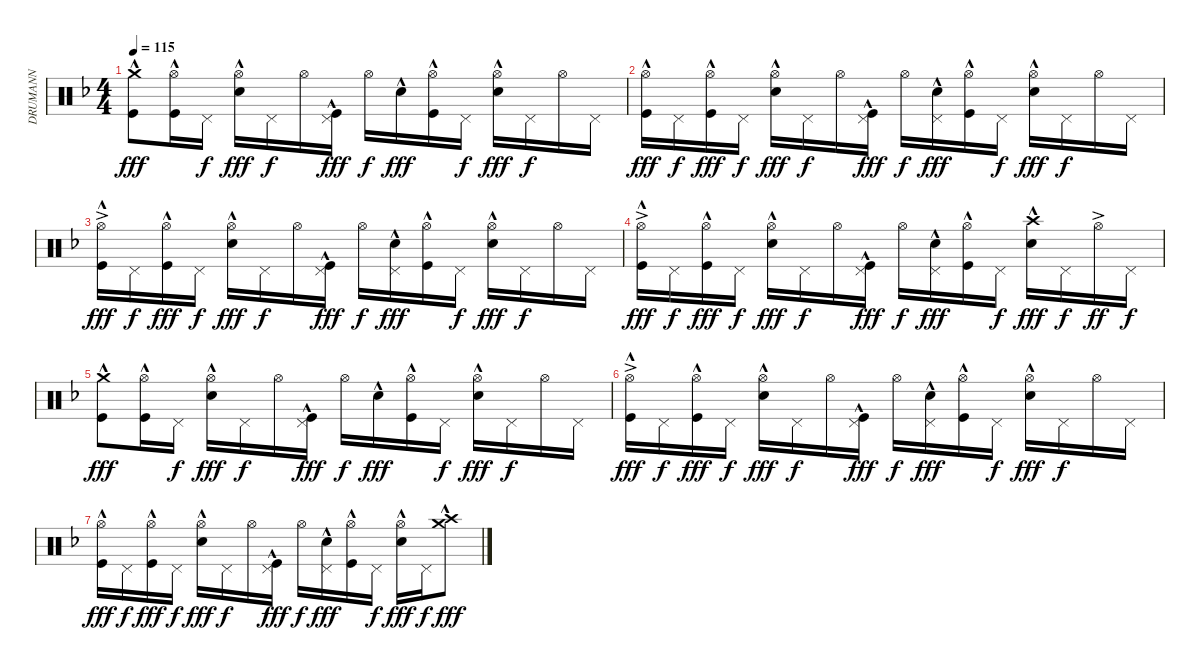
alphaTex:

\track ("DRUMANN" "DRUMANN") {instrument percussion}
\staff {score}
\articulation defaults
\ts (4 4)
\tempo 115
\clef neutral
\ks f
("Crash medium (hit)"{hac} "Kick (hit)"{hac}).8{dy fff} ("Hi-Hat (open)" "Kick (hit)"{hac}).16 "Pedal Hi-Hat (hit)".16{dy f} ("Hi-Hat (open)" "Snare (hit) 2"{hac}).16{dy fff} "Pedal Hi-Hat (hit)".16{dy f} "Hi-Hat (open)".16 ("Pedal Hi-Hat (hit)" "Kick (hit)"{hac}).16{dy fff} "Hi-Hat (open)".16{dy f} "Snare (hit) 2"{hac}.16{dy fff} ("Hi-Hat (open)" "Kick (hit)"{hac}).16 "Pedal Hi-Hat (hit)".16{dy f} ("Hi-Hat (open)" "Snare (hit) 2"{hac}).16{dy fff} "Pedal Hi-Hat (hit)".16{dy f} "Hi-Hat (open)".16 "Pedal Hi-Hat (hit)".16 |
("Hi-Hat (open)" "Kick (hit)"{hac}).16{dy fff} "Pedal Hi-Hat (hit)".16{dy f} ("Hi-Hat (open)" "Kick (hit)"{hac}).16{dy fff} "Pedal Hi-Hat (hit)".16{dy f} ("Hi-Hat (open)" "Snare (hit) 2"{hac}).16{dy fff} "Pedal Hi-Hat (hit)".16{dy f} "Hi-Hat (open)".16 ("Pedal Hi-Hat (hit)" "Kick (hit)"{hac}).16{dy fff} "Hi-Hat (open)".16{dy f} ("Snare (hit) 2"{hac} "Pedal Hi-Hat (hit)").16{dy fff} ("Hi-Hat (open)" "Kick (hit)"{hac}).16 "Pedal Hi-Hat (hit)".16{dy f} ("Hi-Hat (open)" "Snare (hit) 2"{hac}).16{dy fff} "Pedal Hi-Hat (hit)".16{dy f} "Hi-Hat (open)".16 "Pedal Hi-Hat (hit)".16 |
("Hi-Hat (open)"{ac} "Kick (hit)"{hac}).16{dy fff} "Pedal Hi-Hat (hit)".16{dy f} ("Hi-Hat (open)" "Kick (hit)"{hac}).16{dy fff} "Pedal Hi-Hat (hit)".16{dy f} ("Hi-Hat (open)" "Snare (hit) 2"{hac}).16{dy fff} "Pedal Hi-Hat (hit)".16{dy f} "Hi-Hat (open)".16 ("Pedal Hi-Hat (hit)" "Kick (hit)"{hac}).16{dy fff} "Hi-Hat (open)".16{dy f} ("Snare (hit) 2"{hac} "Pedal Hi-Hat (hit)").16{dy fff} ("Hi-Hat (open)" "Kick (hit)"{hac}).16 "Pedal Hi-Hat (hit)".16{dy f} ("Hi-Hat (open)" "Snare (hit) 2"{hac}).16{dy fff} "Pedal Hi-Hat (hit)".16{dy f} "Hi-Hat (open)".16 "Pedal Hi-Hat (hit)".16 |
("Hi-Hat (open)"{ac} "Kick (hit)"{hac}).16{dy fff} "Pedal Hi-Hat (hit)".16{dy f} ("Hi-Hat (open)" "Kick (hit)"{hac}).16{dy fff} "Pedal Hi-Hat (hit)".16{dy f} ("Hi-Hat (open)" "Snare (hit) 2"{hac}).16{dy fff} "Pedal Hi-Hat (hit)".16{dy f} "Hi-Hat (open)".16 ("Pedal Hi-Hat (hit)" "Kick (hit)"{hac}).16{dy fff} "Hi-Hat (open)".16{dy f} ("Snare (hit) 2"{hac} "Pedal Hi-Hat (hit)").16{dy fff} ("Hi-Hat (open)" "Kick (hit)"{hac}).16 "Pedal Hi-Hat (hit)".16{dy f} ("Crash high (hit)"{hac} "Snare (hit) 2"{hac}).16{dy fff} "Pedal Hi-Hat (hit)".16{dy f} "Hi-Hat (open)"{ac}.16{dy ff} "Pedal Hi-Hat (hit)".16{dy f} |
("Crash medium (hit)"{hac} "Kick (hit)"{hac}).8{dy fff} ("Hi-Hat (open)" "Kick (hit)"{hac}).16 "Pedal Hi-Hat (hit)".16{dy f} ("Hi-Hat (open)" "Snare (hit) 2"{hac}).16{dy fff} "Pedal Hi-Hat (hit)".16{dy f} "Hi-Hat (open)".16 ("Pedal Hi-Hat (hit)" "Kick (hit)"{hac}).16{dy fff} "Hi-Hat (open)".16{dy f} "Snare (hit) 2"{hac}.16{dy fff} ("Hi-Hat (open)" "Kick (hit)"{hac}).16 "Pedal Hi-Hat (hit)".16{dy f} ("Hi-Hat (open)" "Snare (hit) 2"{hac}).16{dy fff} "Pedal Hi-Hat (hit)".16{dy f} "Hi-Hat (open)".16 "Pedal Hi-Hat (hit)".16 |
("Hi-Hat (open)"{ac} "Kick (hit)"{hac}).16{dy fff} "Pedal Hi-Hat (hit)".16{dy f} ("Hi-Hat (open)" "Kick (hit)"{hac}).16{dy fff} "Pedal Hi-Hat (hit)".16{dy f} ("Hi-Hat (open)" "Snare (hit) 2"{hac}).16{dy fff} "Pedal Hi-Hat (hit)".16{dy f} "Hi-Hat (open)".16 ("Pedal Hi-Hat (hit)" "Kick (hit)"{hac}).16{dy fff} "Hi-Hat (open)".16{dy f} ("Snare (hit) 2"{hac} "Pedal Hi-Hat (hit)").16{dy fff} ("Hi-Hat (open)" "Kick (hit)"{hac}).16 "Pedal Hi-Hat (hit)".16{dy f} ("Hi-Hat (open)" "Snare (hit) 2"{hac}).16{dy fff} "Pedal Hi-Hat (hit)".16{dy f} "Hi-Hat (open)".16 "Pedal Hi-Hat (hit)".16 |
("Hi-Hat (open)" "Kick (hit)"{hac}).16{dy fff} "Pedal Hi-Hat (hit)".16{dy f} ("Hi-Hat (open)" "Kick (hit)"{hac}).16{dy fff} "Pedal Hi-Hat (hit)".16{dy f} ("Hi-Hat (open)" "Snare (hit) 2"{hac}).16{dy fff} "Pedal Hi-Hat (hit)".16{dy f} "Hi-Hat (open)".16 ("Pedal Hi-Hat (hit)" "Kick (hit)"{hac}).16{dy fff} "Hi-Hat (open)".16{dy f} ("Snare (hit) 2"{hac} "Pedal Hi-Hat (hit)").16{dy fff} ("Hi-Hat (open)" "Kick (hit)"{hac}).16 "Pedal Hi-Hat (hit)".16{dy f} ("Hi-Hat (open)" "Snare (hit) 2"{hac}).16{dy fff} "Pedal Hi-Hat (hit)".16{dy f} ("Crash medium (hit)"{hac} "Crash high (hit)"{hac}).8{dy fff}
